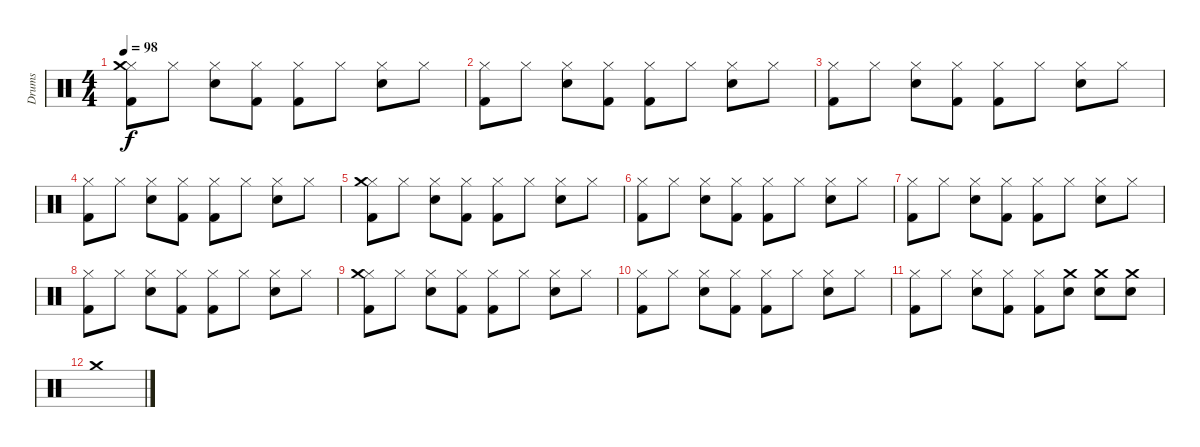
\track ("Drums" "Drums") {instrument percussion}
\staff {score}
\articulation defaults
\ts (4 4)
\tempo 98
\clef neutral
\ks c
("Hi-Hat (closed)" "Crash medium (hit)" "Kick (hit) 2").8{dy f} "Hi-Hat (closed)".8 ("Hi-Hat (closed)" "Electric Snare (hit)").8 ("Hi-Hat (closed)" "Kick (hit) 2").8 ("Hi-Hat (closed)" "Kick (hit) 2").8 "Hi-Hat (closed)".8 ("Hi-Hat (closed)" "Electric Snare (hit)").8 "Hi-Hat (closed)".8 |
("Hi-Hat (closed)" "Kick (hit) 2").8 "Hi-Hat (closed)".8 ("Hi-Hat (closed)" "Electric Snare (hit)").8 ("Hi-Hat (closed)" "Kick (hit) 2").8 ("Hi-Hat (closed)" "Kick (hit) 2").8 "Hi-Hat (closed)".8 ("Hi-Hat (closed)" "Electric Snare (hit)").8 "Hi-Hat (closed)".8 |
("Hi-Hat (closed)" "Kick (hit) 2").8 "Hi-Hat (closed)".8 ("Hi-Hat (closed)" "Electric Snare (hit)").8 ("Hi-Hat (closed)" "Kick (hit) 2").8 ("Hi-Hat (closed)" "Kick (hit) 2").8 "Hi-Hat (closed)".8 ("Hi-Hat (closed)" "Electric Snare (hit)").8 "Hi-Hat (closed)".8 |
("Hi-Hat (closed)" "Kick (hit) 2").8 "Hi-Hat (closed)".8 ("Hi-Hat (closed)" "Electric Snare (hit)").8 ("Hi-Hat (closed)" "Kick (hit) 2").8 ("Hi-Hat (closed)" "Kick (hit) 2").8 "Hi-Hat (closed)".8 ("Hi-Hat (closed)" "Electric Snare (hit)").8 "Hi-Hat (closed)".8 |
("Hi-Hat (closed)" "Crash medium (hit)" "Kick (hit) 2").8 "Hi-Hat (closed)".8 ("Hi-Hat (closed)" "Electric Snare (hit)").8 ("Hi-Hat (closed)" "Kick (hit) 2").8 ("Hi-Hat (closed)" "Kick (hit) 2").8 "Hi-Hat (closed)".8 ("Hi-Hat (closed)" "Electric Snare (hit)").8 "Hi-Hat (closed)".8 |
("Hi-Hat (closed)" "Kick (hit) 2").8 "Hi-Hat (closed)".8 ("Hi-Hat (closed)" "Electric Snare (hit)").8 ("Hi-Hat (closed)" "Kick (hit) 2").8 ("Hi-Hat (closed)" "Kick (hit) 2").8 "Hi-Hat (closed)".8 ("Hi-Hat (closed)" "Electric Snare (hit)").8 "Hi-Hat (closed)".8 |
("Hi-Hat (closed)" "Kick (hit) 2").8 "Hi-Hat (closed)".8 ("Hi-Hat (closed)" "Electric Snare (hit)").8 ("Hi-Hat (closed)" "Kick (hit) 2").8 ("Hi-Hat (closed)" "Kick (hit) 2").8 "Hi-Hat (closed)".8 ("Hi-Hat (closed)" "Electric Snare (hit)").8 "Hi-Hat (closed)".8 |
("Hi-Hat (closed)" "Kick (hit) 2").8 "Hi-Hat (closed)".8 ("Hi-Hat (closed)" "Electric Snare (hit)").8 ("Hi-Hat (closed)" "Kick (hit) 2").8 ("Hi-Hat (closed)" "Kick (hit) 2").8 "Hi-Hat (closed)".8 ("Hi-Hat (closed)" "Electric Snare (hit)").8 "Hi-Hat (closed)".8 |
("Hi-Hat (closed)" "Crash medium (hit)" "Kick (hit) 2").8 "Hi-Hat (closed)".8 ("Hi-Hat (closed)" "Electric Snare (hit)").8 ("Hi-Hat (closed)" "Kick (hit) 2").8 ("Hi-Hat (closed)" "Kick (hit) 2").8 "Hi-Hat (closed)".8 ("Hi-Hat (closed)" "Electric Snare (hit)").8 "Hi-Hat (closed)".8 |
("Hi-Hat (closed)" "Kick (hit) 2").8 "Hi-Hat (closed)".8 ("Hi-Hat (closed)" "Electric Snare (hit)").8 ("Hi-Hat (closed)" "Kick (hit) 2").8 ("Hi-Hat (closed)" "Kick (hit) 2").8 "Hi-Hat (closed)".8 ("Hi-Hat (closed)" "Electric Snare (hit)").8 "Hi-Hat (closed)".8 |
("Hi-Hat (closed)" "Kick (hit) 2").8 "Hi-Hat (closed)".8 ("Hi-Hat (closed)" "Electric Snare (hit)").8 ("Hi-Hat (closed)" "Kick (hit) 2").8 ("Hi-Hat (closed)" "Kick (hit) 2").8 ("Crash medium (hit)" "Electric Snare (hit)").8 ("Crash medium (hit)" "Electric Snare (hit)").8 ("Crash medium (hit)" "Electric Snare (hit)").8 |
"Crash medium (hit)".1
